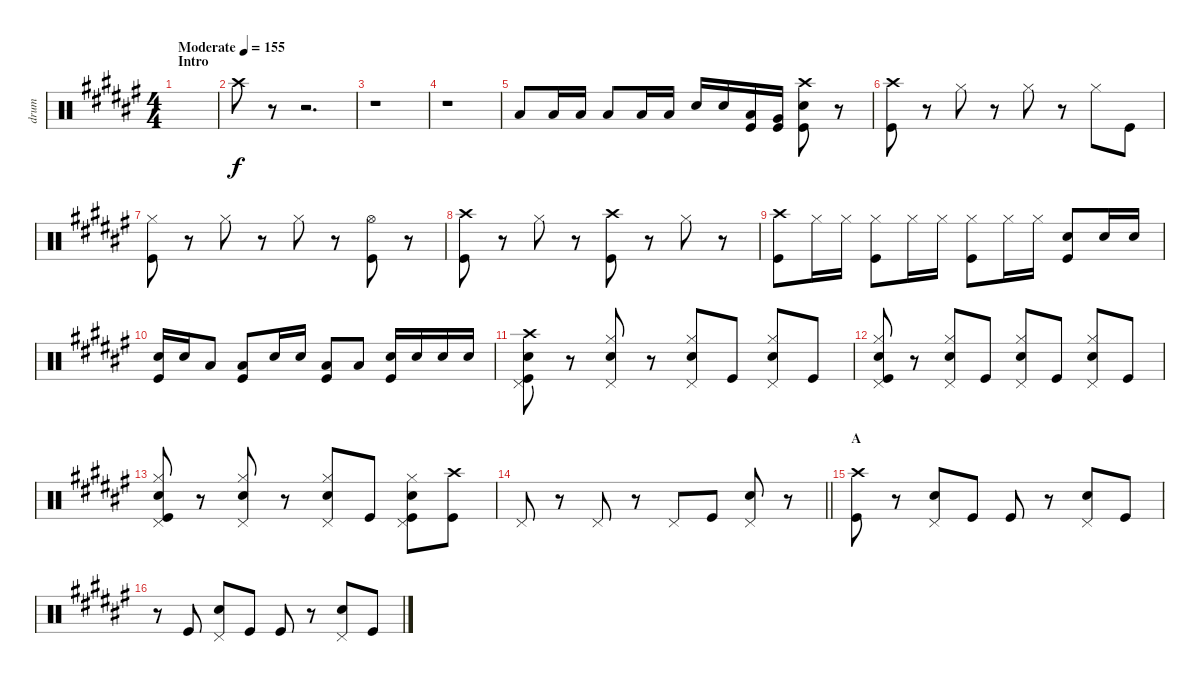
\track ("drum" "drum") {instrument percussion}
\staff {score}
\articulation defaults
\ts (4 4)
\section ("" "Intro")
\tempo (155 "Moderate")
\clef neutral
\ks f#
|
"Crash high (hit)".8 r.8 r.2{d} |
r.1 |
r.1 |
"Low Tom (hit)".8 "Low Tom (hit)".16 "Low Tom (hit)".16 "Low Tom (hit)".8 "Low Tom (hit)".16 "Low Tom (hit)".16 "Snare (hit) 2".16 "Snare (hit) 2".16 ("Low Tom (hit)" "Kick (hit)").16 ("Very Low Tom (hit)" "Kick (hit)").16 ("Crash high (hit)" "Snare (hit) 2" "Kick (hit)").8 r.8 |
("Crash high (hit)" "Kick (hit)").8 r.8 "Hi-Hat (closed)".8 r.8 "Hi-Hat (closed)".8 r.8 "Hi-Hat (closed)".8 "Kick (hit)".8 |
("Hi-Hat (closed)" "Kick (hit)").8 r.8 "Hi-Hat (closed)".8 r.8 "Hi-Hat (closed)".8 r.8 ("Hi-Hat (open)" "Kick (hit)").8 r.8 |
("Crash high (hit)" "Kick (hit)").8 r.8 "Hi-Hat (closed)".8 r.8 ("Crash high (hit)" "Kick (hit)").8 r.8 "Hi-Hat (closed)".8 r.8 |
("Crash high (hit)" "Kick (hit)").8 "Hi-Hat (closed)".16 "Hi-Hat (closed)".16 ("Hi-Hat (closed)" "Kick (hit)").8 "Hi-Hat (closed)".16 "Hi-Hat (closed)".16 ("Hi-Hat (closed)" "Kick (hit)").8 "Hi-Hat (closed)".16 "Hi-Hat (closed)".16 ("Snare (hit) 2" "Kick (hit)").8 "Snare (hit) 2".16 "Snare (hit) 2".16 |
("Snare (hit) 2" "Kick (hit)").16 "Snare (hit) 2".16 "Low Tom (hit)".8 ("Low Tom (hit)" "Kick (hit)").8 "Snare (hit) 2".16 "Snare (hit) 2".16 ("Low Tom (hit)" "Kick (hit)").8 "Low Tom (hit)".8 ("Snare (hit) 2" "Kick (hit)").16 "Snare (hit) 2".16 "Snare (hit) 2".16 "Snare (hit) 2".16 |
("Crash high (hit)" "Snare (hit) 2" "Pedal Hi-Hat (hit)" "Kick (hit)").8 r.8 ("Hi-Hat (closed)" "Snare (hit) 2" "Pedal Hi-Hat (hit)").8 r.8 ("Hi-Hat (closed)" "Snare (hit) 2" "Pedal Hi-Hat (hit)").8 "Kick (hit)".8 ("Hi-Hat (closed)" "Snare (hit) 2" "Pedal Hi-Hat (hit)").8 "Kick (hit)".8 |
("Hi-Hat (closed)" "Snare (hit) 2" "Pedal Hi-Hat (hit)" "Kick (hit)").8 r.8 ("Hi-Hat (closed)" "Snare (hit) 2" "Pedal Hi-Hat (hit)").8 "Kick (hit)".8 ("Hi-Hat (closed)" "Snare (hit) 2" "Pedal Hi-Hat (hit)").8 "Kick (hit)".8 ("Hi-Hat (closed)" "Snare (hit) 2" "Pedal Hi-Hat (hit)").8 "Kick (hit)".8 |
("Hi-Hat (closed)" "Snare (hit) 2" "Pedal Hi-Hat (hit)" "Kick (hit)").8 r.8 ("Hi-Hat (closed)" "Snare (hit) 2" "Pedal Hi-Hat (hit)").8 r.8 ("Hi-Hat (closed)" "Snare (hit) 2" "Pedal Hi-Hat (hit)").8 "Kick (hit)".8 ("Hi-Hat (closed)" "Snare (hit) 2" "Pedal Hi-Hat (hit)" "Kick (hit)").8 ("Crash high (hit)" "Kick (hit)").8 |
\barLineRight lightlight "Pedal Hi-Hat (hit)".8
r.8 "Pedal Hi-Hat (hit)".8 r.8 "Pedal Hi-Hat (hit)".8 "Kick (hit)".8 ("Snare (hit) 2" "Pedal Hi-Hat (hit)").8 r.8 |
\section ("" "A")
("Crash high (hit)" "Kick (hit)").8 r.8 ("Hand Clap (hit)" "Pedal Hi-Hat (hit)").8 "Kick (hit)".8 "Kick (hit)".8 r.8 ("Hand Clap (hit)" "Pedal Hi-Hat (hit)").8 "Kick (hit)".8 |
r.8 "Kick (hit)".8 ("Hand Clap (hit)" "Pedal Hi-Hat (hit)").8 "Kick (hit)".8 "Kick (hit)".8 r.8 ("Hand Clap (hit)" "Pedal Hi-Hat (hit)").8 "Kick (hit)".8
